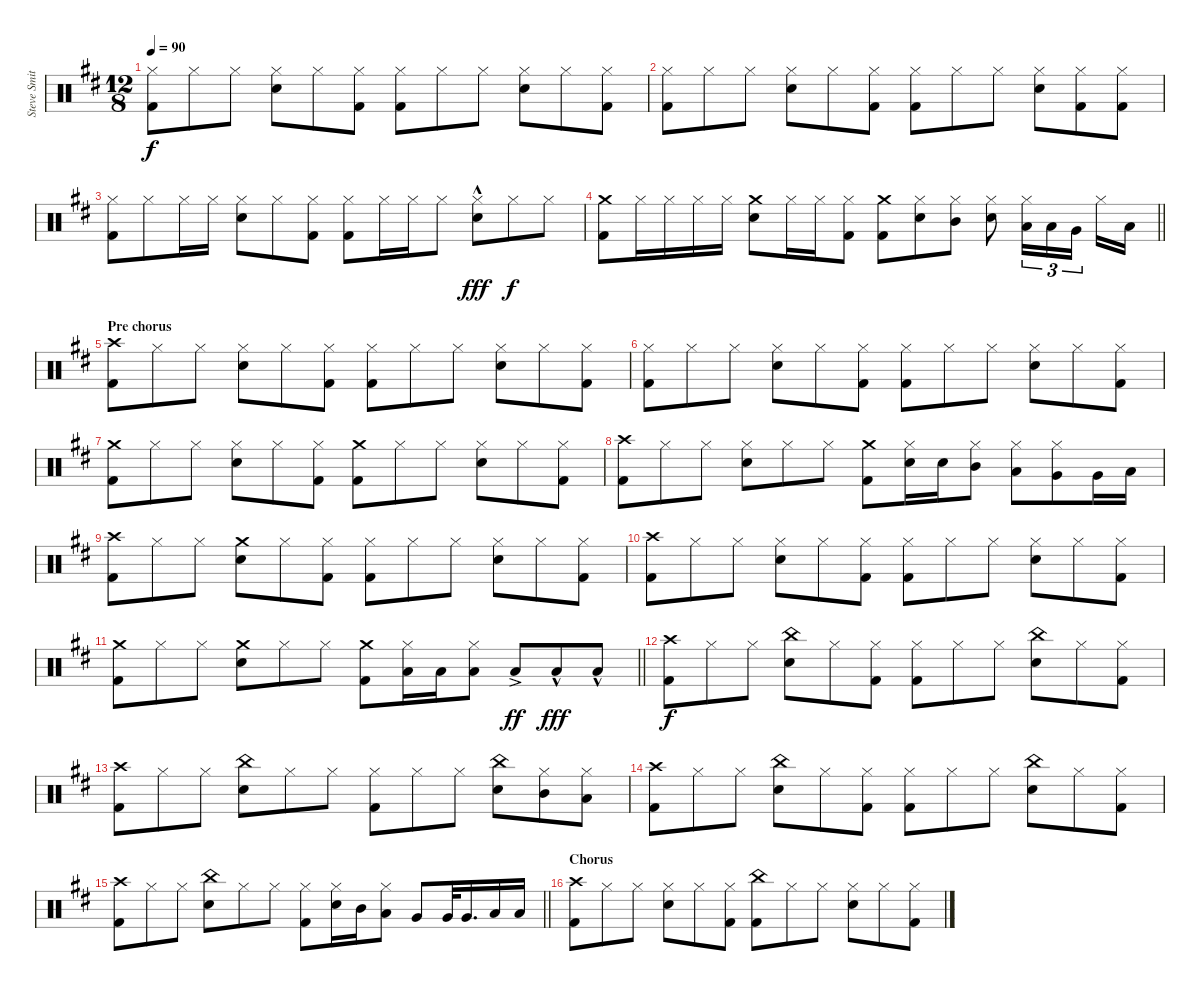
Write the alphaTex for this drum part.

\track ("Steve Smith" "Steve Smit") {instrument percussion}
\staff {score}
\articulation defaults
\ts (12 8)
\tempo 90
\clef neutral
\ks d
("Hi-Hat (closed)" "Kick (hit) 2").8{dy f} "Hi-Hat (closed)".8 "Hi-Hat (closed)".8 ("Hi-Hat (closed)" "Electric Snare (hit)").8 "Hi-Hat (closed)".8 ("Hi-Hat (closed)" "Kick (hit) 2").8 ("Hi-Hat (closed)" "Kick (hit) 2").8 "Hi-Hat (closed)".8 "Hi-Hat (closed)".8 ("Hi-Hat (closed)" "Electric Snare (hit)").8 "Hi-Hat (closed)".8 ("Hi-Hat (closed)" "Kick (hit) 2").8 |
("Hi-Hat (closed)" "Kick (hit) 2").8 "Hi-Hat (closed)".8 "Hi-Hat (closed)".8 ("Hi-Hat (closed)" "Electric Snare (hit)").8 "Hi-Hat (closed)".8 ("Hi-Hat (closed)" "Kick (hit) 2").8 ("Hi-Hat (closed)" "Kick (hit) 2").8 "Hi-Hat (closed)".8 "Hi-Hat (closed)".8 ("Hi-Hat (closed)" "Electric Snare (hit)").8 ("Hi-Hat (closed)" "Kick (hit) 2").8 ("Hi-Hat (closed)" "Kick (hit) 2").8 |
("Hi-Hat (closed)" "Kick (hit) 2").8 "Hi-Hat (closed)".8 "Hi-Hat (closed)".16 "Hi-Hat (closed)".16 ("Hi-Hat (closed)" "Electric Snare (hit)").8 "Hi-Hat (closed)".8 ("Hi-Hat (closed)" "Kick (hit) 2").8 ("Hi-Hat (closed)" "Kick (hit) 2").8 "Hi-Hat (closed)".16 "Hi-Hat (closed)".16 "Hi-Hat (closed)".8 ("Hi-Hat (closed)"{hac} "Electric Snare (hit)").8{dy fff} "Hi-Hat (closed)".8{dy f} "Hi-Hat (closed)".8 |
\barLineRight lightlight
("Crash medium (hit)" "Kick (hit) 2").8 "Hi-Hat (closed)".16 "Hi-Hat (closed)".16 "Hi-Hat (closed)".16 "Hi-Hat (closed)".16 ("Crash medium (hit)" "Electric Snare (hit)").8 "Hi-Hat (closed)".16 "Hi-Hat (closed)".16 ("Hi-Hat (closed)" "Kick (hit) 2").8 ("Crash medium (hit)" "Kick (hit) 2").8 ("Hi-Hat (closed)" "Electric Snare (hit)").8 ("Hi-Hat (closed)" "Mid Tom (hit)").8 ("Hi-Hat (closed)" "Electric Snare (hit)").8 ("Hi-Hat (closed)" "Low Tom (hit)").16{tu (3 2)} "Low Tom (hit)".16{tu (3 2)} "Very Low Tom (hit)".16{tu (3 2) beam splitsecondary} "Hi-Hat (closed)".16 "Low Floor Tom (hit)".16 |
\section ("" "Pre chorus")
("Crash high (hit)" "Kick (hit) 2").8 "Hi-Hat (closed)".8 "Hi-Hat (closed)".8 ("Hi-Hat (closed)" "Electric Snare (hit)").8 "Hi-Hat (closed)".8 ("Hi-Hat (closed)" "Kick (hit) 2").8 ("Hi-Hat (closed)" "Kick (hit) 2").8 "Hi-Hat (closed)".8 "Hi-Hat (closed)".8 ("Hi-Hat (closed)" "Electric Snare (hit)").8 "Hi-Hat (closed)".8 ("Hi-Hat (closed)" "Kick (hit) 2").8 |
("Hi-Hat (closed)" "Kick (hit) 2").8 "Hi-Hat (closed)".8 "Hi-Hat (closed)".8 ("Hi-Hat (closed)" "Electric Snare (hit)").8 "Hi-Hat (closed)".8 ("Hi-Hat (closed)" "Kick (hit) 2").8 ("Hi-Hat (closed)" "Kick (hit) 2").8 "Hi-Hat (closed)".8 "Hi-Hat (closed)".8 ("Hi-Hat (closed)" "Electric Snare (hit)").8 "Hi-Hat (closed)".8 ("Hi-Hat (closed)" "Kick (hit) 2").8 |
("Crash medium (hit)" "Kick (hit) 2").8 "Hi-Hat (closed)".8 "Hi-Hat (closed)".8 ("Hi-Hat (closed)" "Electric Snare (hit)").8 "Hi-Hat (closed)".8 ("Hi-Hat (closed)" "Kick (hit) 2").8 ("Crash medium (hit)" "Kick (hit) 2").8 "Hi-Hat (closed)".8 "Hi-Hat (closed)".8 ("Hi-Hat (closed)" "Electric Snare (hit)").8 "Hi-Hat (closed)".8 ("Hi-Hat (closed)" "Kick (hit) 2").8 |
("Crash high (hit)" "Kick (hit) 2").8 "Hi-Hat (closed)".8 "Hi-Hat (closed)".8 ("Hi-Hat (closed)" "Electric Snare (hit)").8 "Hi-Hat (closed)".8 "Hi-Hat (closed)".8 ("Crash medium (hit)" "Kick (hit) 2").8 ("Hi-Hat (closed)" "Electric Snare (hit)").16 "Electric Snare (hit)".16 ("Hi-Hat (closed)" "Mid Tom (hit)").8 ("Hi-Hat (closed)" "Low Tom (hit)").8 ("Hi-Hat (closed)" "Very Low Tom (hit)").8 "Very Low Tom (hit)".16 "Low Floor Tom (hit)".16 |
("Crash high (hit)" "Kick (hit) 2").8 "Hi-Hat (closed)".8 "Hi-Hat (closed)".8 ("Crash medium (hit)" "Electric Snare (hit)").8 "Hi-Hat (closed)".8 ("Hi-Hat (closed)" "Kick (hit) 2").8 ("Hi-Hat (closed)" "Kick (hit) 2").8 "Hi-Hat (closed)".8 "Hi-Hat (closed)".8 ("Hi-Hat (closed)" "Electric Snare (hit)").8 "Hi-Hat (closed)".8 ("Hi-Hat (closed)" "Kick (hit) 2").8 |
("Crash high (hit)" "Kick (hit) 2").8 "Hi-Hat (closed)".8 "Hi-Hat (closed)".8 ("Hi-Hat (closed)" "Electric Snare (hit)").8 "Hi-Hat (closed)".8 ("Hi-Hat (closed)" "Kick (hit) 2").8 ("Hi-Hat (closed)" "Kick (hit) 2").8 "Hi-Hat (closed)".8 "Hi-Hat (closed)".8 ("Hi-Hat (closed)" "Electric Snare (hit)").8 "Hi-Hat (closed)".8 ("Hi-Hat (closed)" "Kick (hit) 2").8 |
\barLineRight lightlight
("Crash medium (hit)" "Kick (hit) 2").8 "Hi-Hat (closed)".8 "Hi-Hat (closed)".8 ("Crash medium (hit)" "Electric Snare (hit)").8 "Hi-Hat (closed)".8 "Hi-Hat (closed)".8 ("Crash medium (hit)" "Kick (hit) 2").8 ("Hi-Hat (closed)" "Low Floor Tom (hit)").16 "Low Floor Tom (hit)".16 ("Hi-Hat (closed)" "Low Floor Tom (hit)").8 "Low Floor Tom (hit)"{ac}.8{dy ff} "Low Floor Tom (hit)"{hac}.8{dy fff} "Low Floor Tom (hit)"{hac}.8 |
("Crash high (hit)" "Kick (hit) 2").8{dy f} "Hi-Hat (closed)".8 "Hi-Hat (closed)".8 ("China (hit)" "Electric Snare (hit)").8 "Hi-Hat (closed)".8 ("Hi-Hat (closed)" "Kick (hit) 2").8 ("Hi-Hat (closed)" "Kick (hit) 2").8 "Hi-Hat (closed)".8 "Hi-Hat (closed)".8 ("China (hit)" "Electric Snare (hit)").8 "Hi-Hat (closed)".8 ("Hi-Hat (closed)" "Kick (hit) 2").8 |
("Crash high (hit)" "Kick (hit) 2").8 "Hi-Hat (closed)".8 "Hi-Hat (closed)".8 ("China (hit)" "Electric Snare (hit)").8 "Hi-Hat (closed)".8 "Hi-Hat (closed)".8 ("Hi-Hat (closed)" "Kick (hit) 2").8 "Hi-Hat (closed)".8 "Hi-Hat (closed)".8 ("China (hit)" "Electric Snare (hit)").8 ("Hi-Hat (closed)" "Mid Tom (hit)").8 ("Hi-Hat (closed)" "Low Tom (hit)").8 |
("Crash high (hit)" "Kick (hit) 2").8 "Hi-Hat (closed)".8 "Hi-Hat (closed)".8 ("China (hit)" "Electric Snare (hit)").8 "Hi-Hat (closed)".8 ("Hi-Hat (closed)" "Kick (hit) 2").8 ("Hi-Hat (closed)" "Kick (hit) 2").8 "Hi-Hat (closed)".8 "Hi-Hat (closed)".8 ("China (hit)" "Electric Snare (hit)").8 "Hi-Hat (closed)".8 ("Hi-Hat (closed)" "Kick (hit) 2").8 |
\barLineRight lightlight
("Crash high (hit)" "Kick (hit) 2").8 "Hi-Hat (closed)".8 "Hi-Hat (closed)".8 ("China (hit)" "Electric Snare (hit)").8 "Hi-Hat (closed)".8 "Hi-Hat (closed)".8 ("Hi-Hat (closed)" "Kick (hit) 2").8 ("Hi-Hat (closed)" "Electric Snare (hit)").16 "Mid Tom (hit)".16 ("Hi-Hat (closed)" "Low Tom (hit)").8 "Very Low Tom (hit)".8 "Very Low Tom (hit)".32 "Very Low Tom (hit)".16{d} "Low Floor Tom (hit)".16 "Low Floor Tom (hit)".16 |
\section ("" "Chorus")
("Crash high (hit)" "Kick (hit) 2").8 "Hi-Hat (closed)".8 "Hi-Hat (closed)".8 ("Hi-Hat (closed)" "Electric Snare (hit)").8 "Hi-Hat (closed)".8 ("Hi-Hat (closed)" "Kick (hit) 2").8 ("China (hit)" "Kick (hit) 2").8 "Hi-Hat (closed)".8 "Hi-Hat (closed)".8 ("Hi-Hat (closed)" "Electric Snare (hit)").8 "Hi-Hat (closed)".8 ("Hi-Hat (closed)" "Kick (hit) 2").8
